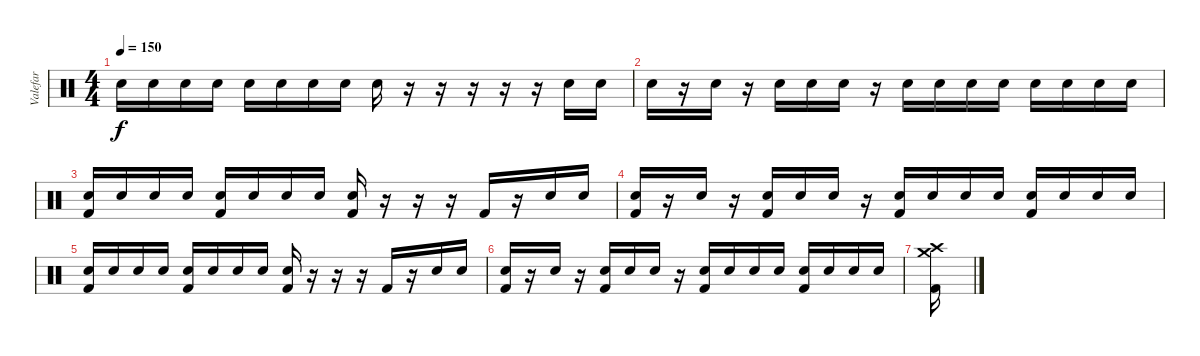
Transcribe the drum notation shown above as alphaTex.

\track ("Valefar" "Valefar") {instrument percussion}
\staff {score}
\articulation defaults
\ts (4 4)
\tempo 150
\clef neutral
\ks c "Electric Snare (hit)".16{dy f} "Electric Snare (hit)".16 "Electric Snare (hit)".16 "Electric Snare (hit)".16 "Electric Snare (hit)".16 "Electric Snare (hit)".16 "Electric Snare (hit)".16 "Electric Snare (hit)".16 "Electric Snare (hit)".16
r.16 r.16 r.16 r.16 r.16 "Electric Snare (hit)".16 "Electric Snare (hit)".16 |
"Electric Snare (hit)".16 r.16 "Electric Snare (hit)".16 r.16 "Electric Snare (hit)".16 "Electric Snare (hit)".16 "Electric Snare (hit)".16 r.16 "Electric Snare (hit)".16 "Electric Snare (hit)".16 "Electric Snare (hit)".16 "Electric Snare (hit)".16 "Electric Snare (hit)".16 "Electric Snare (hit)".16 "Electric Snare (hit)".16 "Electric Snare (hit)".16 |
("Electric Snare (hit)" "Kick (hit) 2").16 "Electric Snare (hit)".16 "Electric Snare (hit)".16 "Electric Snare (hit)".16 ("Electric Snare (hit)" "Kick (hit) 2").16 "Electric Snare (hit)".16 "Electric Snare (hit)".16 "Electric Snare (hit)".16 ("Electric Snare (hit)" "Kick (hit) 2").16 r.16 r.16 r.16 "Kick (hit) 2".16 r.16 "Electric Snare (hit)".16 "Electric Snare (hit)".16 |
("Electric Snare (hit)" "Kick (hit) 2").16 r.16 "Electric Snare (hit)".16 r.16 ("Electric Snare (hit)" "Kick (hit) 2").16 "Electric Snare (hit)".16 "Electric Snare (hit)".16 r.16 ("Electric Snare (hit)" "Kick (hit) 2").16 "Electric Snare (hit)".16 "Electric Snare (hit)".16 "Electric Snare (hit)".16 ("Electric Snare (hit)" "Kick (hit) 2").16 "Electric Snare (hit)".16 "Electric Snare (hit)".16 "Electric Snare (hit)".16 |
("Electric Snare (hit)" "Kick (hit) 2").16 "Electric Snare (hit)".16 "Electric Snare (hit)".16 "Electric Snare (hit)".16 ("Electric Snare (hit)" "Kick (hit) 2").16 "Electric Snare (hit)".16 "Electric Snare (hit)".16 "Electric Snare (hit)".16 ("Electric Snare (hit)" "Kick (hit) 2").16 r.16 r.16 r.16 "Kick (hit) 2".16 r.16 "Electric Snare (hit)".16 "Electric Snare (hit)".16 |
("Electric Snare (hit)" "Kick (hit) 2").16 r.16 "Electric Snare (hit)".16 r.16 ("Electric Snare (hit)" "Kick (hit) 2").16 "Electric Snare (hit)".16 "Electric Snare (hit)".16 r.16 ("Electric Snare (hit)" "Kick (hit) 2").16 "Electric Snare (hit)".16 "Electric Snare (hit)".16 "Electric Snare (hit)".16 ("Electric Snare (hit)" "Kick (hit) 2").16 "Electric Snare (hit)".16 "Electric Snare (hit)".16 "Electric Snare (hit)".16 |
("Crash medium (hit)" "Crash high (hit)" "Kick (hit) 2").16
